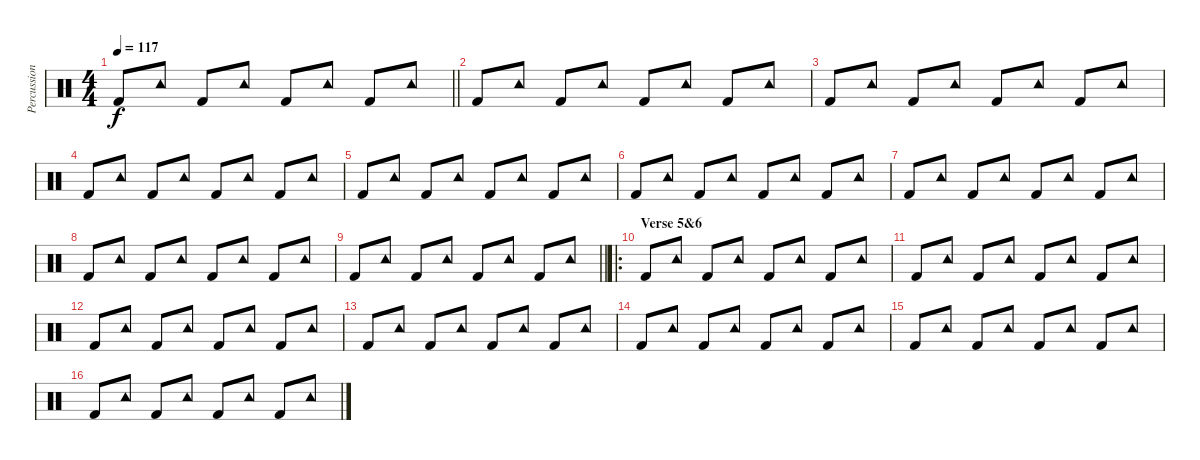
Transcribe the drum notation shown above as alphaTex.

\track ("Percussion" "Percussion") {instrument percussion}
\staff {score}
\articulation defaults
\ts (4 4)
\tempo 117
\clef neutral
\barLineRight lightlight
\ks c "Kick (hit) 2".8{dy f} "Tambourine (hit)".8 "Kick (hit) 2".8 "Tambourine (hit)".8 "Kick (hit) 2".8 "Tambourine (hit)".8 "Kick (hit) 2".8 "Tambourine (hit)".8
|
"Kick (hit) 2".8 "Tambourine (hit)".8 "Kick (hit) 2".8 "Tambourine (hit)".8 "Kick (hit) 2".8 "Tambourine (hit)".8 "Kick (hit) 2".8 "Tambourine (hit)".8 |
"Kick (hit) 2".8 "Tambourine (hit)".8 "Kick (hit) 2".8 "Tambourine (hit)".8 "Kick (hit) 2".8 "Tambourine (hit)".8 "Kick (hit) 2".8 "Tambourine (hit)".8 |
"Kick (hit) 2".8 "Tambourine (hit)".8 "Kick (hit) 2".8 "Tambourine (hit)".8 "Kick (hit) 2".8 "Tambourine (hit)".8 "Kick (hit) 2".8 "Tambourine (hit)".8 |
"Kick (hit) 2".8 "Tambourine (hit)".8 "Kick (hit) 2".8 "Tambourine (hit)".8 "Kick (hit) 2".8 "Tambourine (hit)".8 "Kick (hit) 2".8 "Tambourine (hit)".8 |
"Kick (hit) 2".8 "Tambourine (hit)".8 "Kick (hit) 2".8 "Tambourine (hit)".8 "Kick (hit) 2".8 "Tambourine (hit)".8 "Kick (hit) 2".8 "Tambourine (hit)".8 |
"Kick (hit) 2".8 "Tambourine (hit)".8 "Kick (hit) 2".8 "Tambourine (hit)".8 "Kick (hit) 2".8 "Tambourine (hit)".8 "Kick (hit) 2".8 "Tambourine (hit)".8 |
"Kick (hit) 2".8 "Tambourine (hit)".8 "Kick (hit) 2".8 "Tambourine (hit)".8 "Kick (hit) 2".8 "Tambourine (hit)".8 "Kick (hit) 2".8 "Tambourine (hit)".8 |
\barLineRight lightlight "Kick (hit) 2".8 "Tambourine (hit)".8 "Kick (hit) 2".8 "Tambourine (hit)".8 "Kick (hit) 2".8 "Tambourine (hit)".8 "Kick (hit) 2".8 "Tambourine (hit)".8
|
\ro
\section ("" "Verse 5&6")
"Kick (hit) 2".8 "Tambourine (hit)".8 "Kick (hit) 2".8 "Tambourine (hit)".8 "Kick (hit) 2".8 "Tambourine (hit)".8 "Kick (hit) 2".8 "Tambourine (hit)".8 |
"Kick (hit) 2".8 "Tambourine (hit)".8 "Kick (hit) 2".8 "Tambourine (hit)".8 "Kick (hit) 2".8 "Tambourine (hit)".8 "Kick (hit) 2".8 "Tambourine (hit)".8 |
"Kick (hit) 2".8 "Tambourine (hit)".8 "Kick (hit) 2".8 "Tambourine (hit)".8 "Kick (hit) 2".8 "Tambourine (hit)".8 "Kick (hit) 2".8 "Tambourine (hit)".8 |
"Kick (hit) 2".8 "Tambourine (hit)".8 "Kick (hit) 2".8 "Tambourine (hit)".8 "Kick (hit) 2".8 "Tambourine (hit)".8 "Kick (hit) 2".8 "Tambourine (hit)".8 |
"Kick (hit) 2".8 "Tambourine (hit)".8 "Kick (hit) 2".8 "Tambourine (hit)".8 "Kick (hit) 2".8 "Tambourine (hit)".8 "Kick (hit) 2".8 "Tambourine (hit)".8 |
"Kick (hit) 2".8 "Tambourine (hit)".8 "Kick (hit) 2".8 "Tambourine (hit)".8 "Kick (hit) 2".8 "Tambourine (hit)".8 "Kick (hit) 2".8 "Tambourine (hit)".8 |
"Kick (hit) 2".8 "Tambourine (hit)".8 "Kick (hit) 2".8 "Tambourine (hit)".8 "Kick (hit) 2".8 "Tambourine (hit)".8 "Kick (hit) 2".8 "Tambourine (hit)".8
